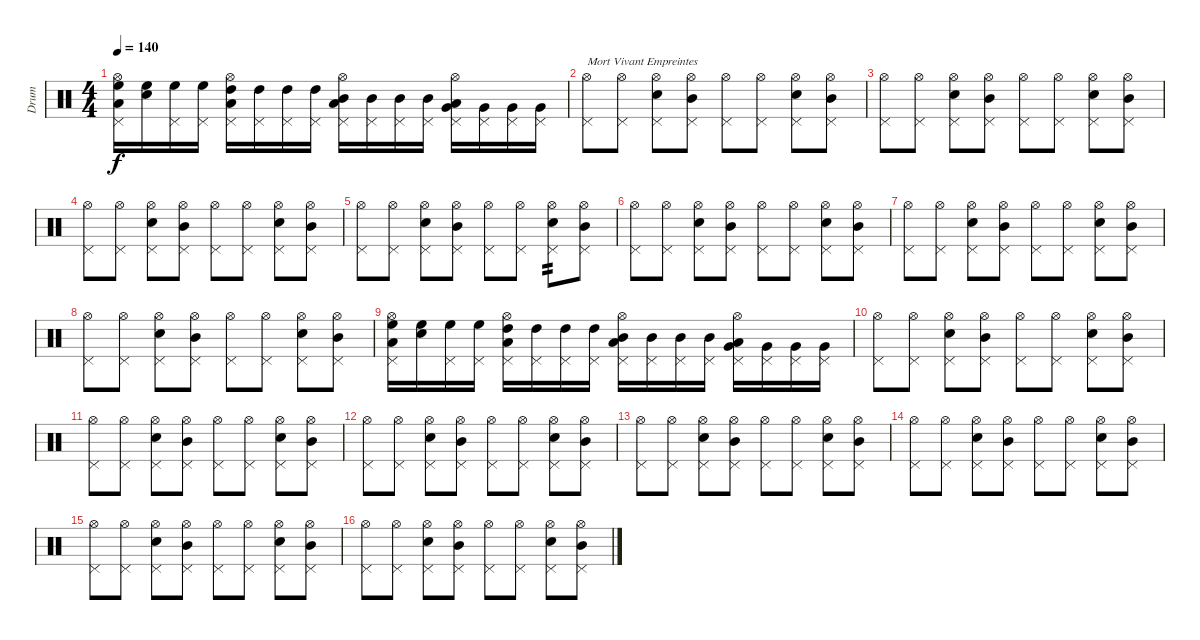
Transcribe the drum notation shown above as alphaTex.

\track ("Drum" "Drum") {instrument percussion}
\staff {score}
\articulation defaults
\ts (4 4)
\tempo 140
\clef neutral
\ks c
("Hi-Hat (open)" "High Floor Tom (hit)" "Low Tom (hit)" "Pedal Hi-Hat (hit)").16{dy f} ("High Floor Tom (hit)" "Snare (hit)").16 ("High Floor Tom (hit)" "Pedal Hi-Hat (hit)").16 ("High Floor Tom (hit)" "Pedal Hi-Hat (hit)").16 ("Hi-Hat (open)" "High Tom (hit)" "Low Tom (hit)" "Pedal Hi-Hat (hit)").16 ("High Tom (hit)" "Pedal Hi-Hat (hit)").16 ("High Tom (hit)" "Pedal Hi-Hat (hit)").16 ("High Tom (hit)" "Pedal Hi-Hat (hit)").16 ("Hi-Hat (open)" "Mid Tom (hit)" "Low Tom (hit)" "Pedal Hi-Hat (hit)").16 ("Mid Tom (hit)" "Pedal Hi-Hat (hit)").16 ("Mid Tom (hit)" "Pedal Hi-Hat (hit)").16 ("Mid Tom (hit)" "Pedal Hi-Hat (hit)").16 ("Hi-Hat (open)" "Very Low Tom (hit)" "Low Tom (hit)" "Pedal Hi-Hat (hit)").16 ("Very Low Tom (hit)" "Pedal Hi-Hat (hit)").16 ("Very Low Tom (hit)" "Pedal Hi-Hat (hit)").16 ("Very Low Tom (hit)" "Pedal Hi-Hat (hit)").16 |
("Hi-Hat (open)" "Pedal Hi-Hat (hit)").8{txt "Mort Vivant Empreintes"} ("Hi-Hat (open)" "Pedal Hi-Hat (hit)").8 ("Hi-Hat (open)" "Snare (hit) 2" "Pedal Hi-Hat (hit)").8 ("Hi-Hat (open)" "Mid Tom (hit)" "Pedal Hi-Hat (hit)").8 ("Hi-Hat (open)" "Pedal Hi-Hat (hit)").8 ("Hi-Hat (open)" "Pedal Hi-Hat (hit)").8 ("Hi-Hat (open)" "Snare (hit) 2" "Pedal Hi-Hat (hit)").8 ("Hi-Hat (open)" "Mid Tom (hit)" "Pedal Hi-Hat (hit)").8 |
("Hi-Hat (open)" "Pedal Hi-Hat (hit)").8 ("Hi-Hat (open)" "Pedal Hi-Hat (hit)").8 ("Hi-Hat (open)" "Snare (hit) 2" "Pedal Hi-Hat (hit)").8 ("Hi-Hat (open)" "Mid Tom (hit)" "Pedal Hi-Hat (hit)").8 ("Hi-Hat (open)" "Pedal Hi-Hat (hit)").8 ("Hi-Hat (open)" "Pedal Hi-Hat (hit)").8 ("Hi-Hat (open)" "Snare (hit) 2" "Pedal Hi-Hat (hit)").8 ("Hi-Hat (open)" "Mid Tom (hit)" "Pedal Hi-Hat (hit)").8 |
("Hi-Hat (open)" "Pedal Hi-Hat (hit)").8 ("Hi-Hat (open)" "Pedal Hi-Hat (hit)").8 ("Hi-Hat (open)" "Snare (hit) 2" "Pedal Hi-Hat (hit)").8 ("Hi-Hat (open)" "Mid Tom (hit)" "Pedal Hi-Hat (hit)").8 ("Hi-Hat (open)" "Pedal Hi-Hat (hit)").8 ("Hi-Hat (open)" "Pedal Hi-Hat (hit)").8 ("Hi-Hat (open)" "Snare (hit) 2" "Pedal Hi-Hat (hit)").8 ("Hi-Hat (open)" "Mid Tom (hit)" "Pedal Hi-Hat (hit)").8 |
("Hi-Hat (open)" "Pedal Hi-Hat (hit)").8 ("Hi-Hat (open)" "Pedal Hi-Hat (hit)").8 ("Hi-Hat (open)" "Snare (hit) 2" "Pedal Hi-Hat (hit)").8 ("Hi-Hat (open)" "Mid Tom (hit)" "Pedal Hi-Hat (hit)").8 ("Hi-Hat (open)" "Pedal Hi-Hat (hit)").8 ("Hi-Hat (open)" "Pedal Hi-Hat (hit)").8 ("Hi-Hat (open)" "Snare (hit) 2" "Pedal Hi-Hat (hit)").8{tp 2} ("Hi-Hat (open)" "Mid Tom (hit)" "Pedal Hi-Hat (hit)").8 |
("Hi-Hat (open)" "Pedal Hi-Hat (hit)").8 ("Hi-Hat (open)" "Pedal Hi-Hat (hit)").8 ("Hi-Hat (open)" "Snare (hit) 2" "Pedal Hi-Hat (hit)").8 ("Hi-Hat (open)" "Mid Tom (hit)" "Pedal Hi-Hat (hit)").8 ("Hi-Hat (open)" "Pedal Hi-Hat (hit)").8 ("Hi-Hat (open)" "Pedal Hi-Hat (hit)").8 ("Hi-Hat (open)" "Snare (hit) 2" "Pedal Hi-Hat (hit)").8 ("Hi-Hat (open)" "Mid Tom (hit)" "Pedal Hi-Hat (hit)").8 |
("Hi-Hat (open)" "Pedal Hi-Hat (hit)").8 ("Hi-Hat (open)" "Pedal Hi-Hat (hit)").8 ("Hi-Hat (open)" "Snare (hit) 2" "Pedal Hi-Hat (hit)").8 ("Hi-Hat (open)" "Mid Tom (hit)" "Pedal Hi-Hat (hit)").8 ("Hi-Hat (open)" "Pedal Hi-Hat (hit)").8 ("Hi-Hat (open)" "Pedal Hi-Hat (hit)").8 ("Hi-Hat (open)" "Snare (hit) 2" "Pedal Hi-Hat (hit)").8 ("Hi-Hat (open)" "Mid Tom (hit)" "Pedal Hi-Hat (hit)").8 |
("Hi-Hat (open)" "Pedal Hi-Hat (hit)").8 ("Hi-Hat (open)" "Pedal Hi-Hat (hit)").8 ("Hi-Hat (open)" "Snare (hit) 2" "Pedal Hi-Hat (hit)").8 ("Hi-Hat (open)" "Mid Tom (hit)" "Pedal Hi-Hat (hit)").8 ("Hi-Hat (open)" "Pedal Hi-Hat (hit)").8 ("Hi-Hat (open)" "Pedal Hi-Hat (hit)").8 ("Hi-Hat (open)" "Snare (hit) 2" "Pedal Hi-Hat (hit)").8 ("Hi-Hat (open)" "Mid Tom (hit)" "Pedal Hi-Hat (hit)").8 |
("Hi-Hat (open)" "High Floor Tom (hit)" "Low Tom (hit)" "Pedal Hi-Hat (hit)").16 ("High Floor Tom (hit)" "Snare (hit)").16 ("High Floor Tom (hit)" "Pedal Hi-Hat (hit)").16 ("High Floor Tom (hit)" "Pedal Hi-Hat (hit)").16 ("Hi-Hat (open)" "High Tom (hit)" "Low Tom (hit)" "Pedal Hi-Hat (hit)").16 ("High Tom (hit)" "Pedal Hi-Hat (hit)").16 ("High Tom (hit)" "Pedal Hi-Hat (hit)").16 ("High Tom (hit)" "Pedal Hi-Hat (hit)").16 ("Hi-Hat (open)" "Mid Tom (hit)" "Low Tom (hit)" "Pedal Hi-Hat (hit)").16 ("Mid Tom (hit)" "Pedal Hi-Hat (hit)").16 ("Mid Tom (hit)" "Pedal Hi-Hat (hit)").16 ("Mid Tom (hit)" "Pedal Hi-Hat (hit)").16 ("Hi-Hat (open)" "Very Low Tom (hit)" "Low Tom (hit)" "Pedal Hi-Hat (hit)").16 ("Very Low Tom (hit)" "Pedal Hi-Hat (hit)").16 ("Very Low Tom (hit)" "Pedal Hi-Hat (hit)").16 ("Very Low Tom (hit)" "Pedal Hi-Hat (hit)").16 |
("Hi-Hat (open)" "Pedal Hi-Hat (hit)").8 ("Hi-Hat (open)" "Pedal Hi-Hat (hit)").8 ("Hi-Hat (open)" "Snare (hit) 2" "Pedal Hi-Hat (hit)").8 ("Hi-Hat (open)" "Mid Tom (hit)" "Pedal Hi-Hat (hit)").8 ("Hi-Hat (open)" "Pedal Hi-Hat (hit)").8 ("Hi-Hat (open)" "Pedal Hi-Hat (hit)").8 ("Hi-Hat (open)" "Snare (hit) 2" "Pedal Hi-Hat (hit)").8 ("Hi-Hat (open)" "Mid Tom (hit)" "Pedal Hi-Hat (hit)").8 |
("Hi-Hat (open)" "Pedal Hi-Hat (hit)").8 ("Hi-Hat (open)" "Pedal Hi-Hat (hit)").8 ("Hi-Hat (open)" "Snare (hit) 2" "Pedal Hi-Hat (hit)").8 ("Hi-Hat (open)" "Mid Tom (hit)" "Pedal Hi-Hat (hit)").8 ("Hi-Hat (open)" "Pedal Hi-Hat (hit)").8 ("Hi-Hat (open)" "Pedal Hi-Hat (hit)").8 ("Hi-Hat (open)" "Snare (hit) 2" "Pedal Hi-Hat (hit)").8 ("Hi-Hat (open)" "Mid Tom (hit)" "Pedal Hi-Hat (hit)").8 |
("Hi-Hat (open)" "Pedal Hi-Hat (hit)").8 ("Hi-Hat (open)" "Pedal Hi-Hat (hit)").8 ("Hi-Hat (open)" "Snare (hit) 2" "Pedal Hi-Hat (hit)").8 ("Hi-Hat (open)" "Mid Tom (hit)" "Pedal Hi-Hat (hit)").8 ("Hi-Hat (open)" "Pedal Hi-Hat (hit)").8 ("Hi-Hat (open)" "Pedal Hi-Hat (hit)").8 ("Hi-Hat (open)" "Snare (hit) 2" "Pedal Hi-Hat (hit)").8 ("Hi-Hat (open)" "Mid Tom (hit)" "Pedal Hi-Hat (hit)").8 |
("Hi-Hat (open)" "Pedal Hi-Hat (hit)").8 ("Hi-Hat (open)" "Pedal Hi-Hat (hit)").8 ("Hi-Hat (open)" "Snare (hit) 2" "Pedal Hi-Hat (hit)").8 ("Hi-Hat (open)" "Mid Tom (hit)" "Pedal Hi-Hat (hit)").8 ("Hi-Hat (open)" "Pedal Hi-Hat (hit)").8 ("Hi-Hat (open)" "Pedal Hi-Hat (hit)").8 ("Hi-Hat (open)" "Snare (hit) 2" "Pedal Hi-Hat (hit)").8 ("Hi-Hat (open)" "Mid Tom (hit)" "Pedal Hi-Hat (hit)").8 |
("Hi-Hat (open)" "Pedal Hi-Hat (hit)").8 ("Hi-Hat (open)" "Pedal Hi-Hat (hit)").8 ("Hi-Hat (open)" "Snare (hit) 2" "Pedal Hi-Hat (hit)").8 ("Hi-Hat (open)" "Mid Tom (hit)" "Pedal Hi-Hat (hit)").8 ("Hi-Hat (open)" "Pedal Hi-Hat (hit)").8 ("Hi-Hat (open)" "Pedal Hi-Hat (hit)").8 ("Hi-Hat (open)" "Snare (hit) 2" "Pedal Hi-Hat (hit)").8 ("Hi-Hat (open)" "Mid Tom (hit)" "Pedal Hi-Hat (hit)").8 |
("Hi-Hat (open)" "Pedal Hi-Hat (hit)").8 ("Hi-Hat (open)" "Pedal Hi-Hat (hit)").8 ("Hi-Hat (open)" "Snare (hit) 2" "Pedal Hi-Hat (hit)").8 ("Hi-Hat (open)" "Mid Tom (hit)" "Pedal Hi-Hat (hit)").8 ("Hi-Hat (open)" "Pedal Hi-Hat (hit)").8 ("Hi-Hat (open)" "Pedal Hi-Hat (hit)").8 ("Hi-Hat (open)" "Snare (hit) 2" "Pedal Hi-Hat (hit)").8 ("Hi-Hat (open)" "Mid Tom (hit)" "Pedal Hi-Hat (hit)").8 |
("Hi-Hat (open)" "Pedal Hi-Hat (hit)").8 ("Hi-Hat (open)" "Pedal Hi-Hat (hit)").8 ("Hi-Hat (open)" "Snare (hit) 2" "Pedal Hi-Hat (hit)").8 ("Hi-Hat (open)" "Mid Tom (hit)" "Pedal Hi-Hat (hit)").8 ("Hi-Hat (open)" "Pedal Hi-Hat (hit)").8 ("Hi-Hat (open)" "Pedal Hi-Hat (hit)").8 ("Hi-Hat (open)" "Snare (hit) 2" "Pedal Hi-Hat (hit)").8 ("Hi-Hat (open)" "Mid Tom (hit)" "Pedal Hi-Hat (hit)").8
